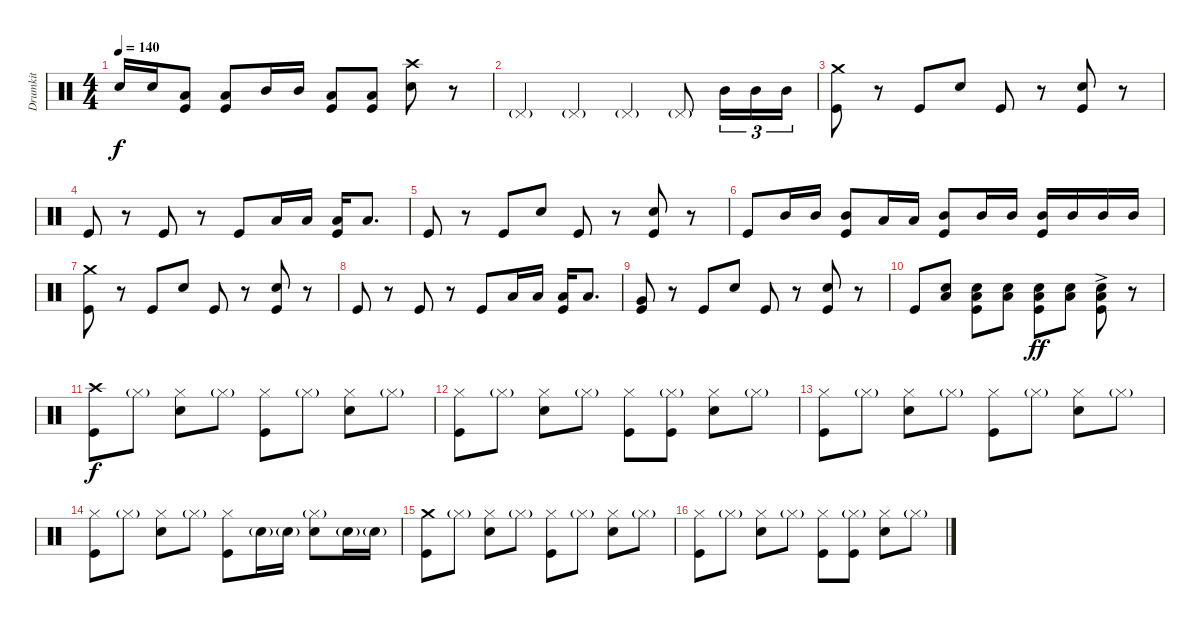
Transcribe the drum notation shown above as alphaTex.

\track ("Drumkit" "Drumkit") {instrument percussion}
\staff {score}
\articulation defaults
\ts (4 4)
\tempo 140
\clef neutral
\ks c "Snare (hit) 2".16{dy f} "Snare (hit) 2".16
("Kick (hit)" "Low Tom (hit)").8 ("Kick (hit)" "Low Tom (hit)").8 "Mid Tom (hit)".16 "Mid Tom (hit)".16 ("Kick (hit)" "Low Tom (hit)").8 ("Kick (hit)" "Low Tom (hit)").8 ("Snare (hit) 2" "Crash high (hit)").8 r.8 |
"Pedal Hi-Hat (hit)"{g}.4 "Pedal Hi-Hat (hit)"{g}.4 "Pedal Hi-Hat (hit)"{g}.4 "Pedal Hi-Hat (hit)"{g}.8 "Mid Tom (hit)".16{tu (3 2)} "Mid Tom (hit)".16{tu (3 2)} "Mid Tom (hit)".16{tu (3 2)} |
("Crash medium (hit)" "Kick (hit)").8 r.8 "Kick (hit)".8 "Snare (hit) 2".8 "Kick (hit)".8 r.8 ("Kick (hit)" "Snare (hit) 2").8 r.8 |
"Kick (hit)".8 r.8 "Kick (hit)".8 r.8 "Kick (hit)".8 "Low Tom (hit)".16 "Low Tom (hit)".16 ("Low Tom (hit)" "Kick (hit)").16 "Low Tom (hit)".8{d} |
"Kick (hit)".8 r.8 "Kick (hit)".8 "Snare (hit) 2".8 "Kick (hit)".8 r.8 ("Kick (hit)" "Snare (hit) 2").8 r.8 |
"Kick (hit)".8 "Mid Tom (hit)".16 "Mid Tom (hit)".16 ("Kick (hit)" "Mid Tom (hit)").8 "Low Tom (hit)".16 "Low Tom (hit)".16 ("Kick (hit)" "Mid Tom (hit)").8 "Mid Tom (hit)".16 "Mid Tom (hit)".16 ("Kick (hit)" "Mid Tom (hit)").16 "Mid Tom (hit)".16 "Mid Tom (hit)".16 "Mid Tom (hit)".16 |
("Crash medium (hit)" "Kick (hit)").8 r.8 "Kick (hit)".8 "Snare (hit) 2".8 "Kick (hit)".8 r.8 ("Kick (hit)" "Snare (hit) 2").8 r.8 |
"Kick (hit)".8 r.8 "Kick (hit)".8 r.8 "Kick (hit)".8 "Low Tom (hit)".16 "Low Tom (hit)".16 ("Low Tom (hit)" "Kick (hit)").16 "Low Tom (hit)".8{d} |
("Kick (hit)" "Very Low Tom (hit)").8 r.8 "Kick (hit)".8 "Snare (hit) 2".8 "Kick (hit)".8 r.8 ("Kick (hit)" "Snare (hit) 2").8 r.8 |
"Kick (hit)".8 ("Low Tom (hit)" "Snare (hit) 2").8 ("Low Tom (hit)" "Kick (hit)" "Snare (hit) 2").8 ("Low Tom (hit)" "Snare (hit) 2").8 ("Low Tom (hit)" "Kick (hit)" "Snare (hit) 2").8{dy ff} ("Low Tom (hit)" "Snare (hit) 2").8 ("Low Tom (hit)"{ac} "Kick (hit)"{ac} "Snare (hit) 2"{ac}).8 r.8 |
("Kick (hit)" "Crash high (hit)").8{dy f} "Hi-Hat (closed)"{g}.8 ("Snare (hit) 2" "Hi-Hat (closed)").8 "Hi-Hat (closed)"{g}.8 ("Kick (hit)" "Hi-Hat (closed)").8 "Hi-Hat (closed)"{g}.8 ("Snare (hit) 2" "Hi-Hat (closed)").8 "Hi-Hat (closed)"{g}.8 |
("Kick (hit)" "Hi-Hat (closed)").8 "Hi-Hat (closed)"{g}.8 ("Snare (hit) 2" "Hi-Hat (closed)").8 "Hi-Hat (closed)"{g}.8 ("Kick (hit)" "Hi-Hat (closed)").8 ("Hi-Hat (closed)"{g} "Kick (hit)").8 ("Snare (hit) 2" "Hi-Hat (closed)").8 "Hi-Hat (closed)"{g}.8 |
("Kick (hit)" "Hi-Hat (closed)").8 "Hi-Hat (closed)"{g}.8 ("Snare (hit) 2" "Hi-Hat (closed)").8 "Hi-Hat (closed)"{g}.8 ("Kick (hit)" "Hi-Hat (closed)").8 "Hi-Hat (closed)"{g}.8 ("Snare (hit) 2" "Hi-Hat (closed)").8 "Hi-Hat (closed)"{g}.8 |
("Kick (hit)" "Hi-Hat (closed)").8 "Hi-Hat (closed)"{g}.8 ("Snare (hit) 2" "Hi-Hat (closed)").8 "Hi-Hat (closed)"{g}.8 ("Kick (hit)" "Hi-Hat (closed)").8 "Snare (hit) 2"{g}.16 "Snare (hit) 2"{g}.16 ("Snare (hit) 2" "Hi-Hat (closed)"{g}).8 "Snare (hit) 2"{g}.16 "Snare (hit) 2"{g}.16 |
("Kick (hit)" "Crash medium (hit)").8 "Hi-Hat (closed)"{g}.8 ("Snare (hit) 2" "Hi-Hat (closed)").8 "Hi-Hat (closed)"{g}.8 ("Hi-Hat (closed)" "Kick (hit)").8 "Hi-Hat (closed)"{g}.8 ("Snare (hit) 2" "Hi-Hat (closed)").8 "Hi-Hat (closed)"{g}.8 |
("Kick (hit)" "Hi-Hat (closed)").8 "Hi-Hat (closed)"{g}.8 ("Snare (hit) 2" "Hi-Hat (closed)").8 "Hi-Hat (closed)"{g}.8 ("Kick (hit)" "Hi-Hat (closed)").8 ("Hi-Hat (closed)"{g} "Kick (hit)").8 ("Snare (hit) 2" "Hi-Hat (closed)").8 "Hi-Hat (closed)"{g}.8
